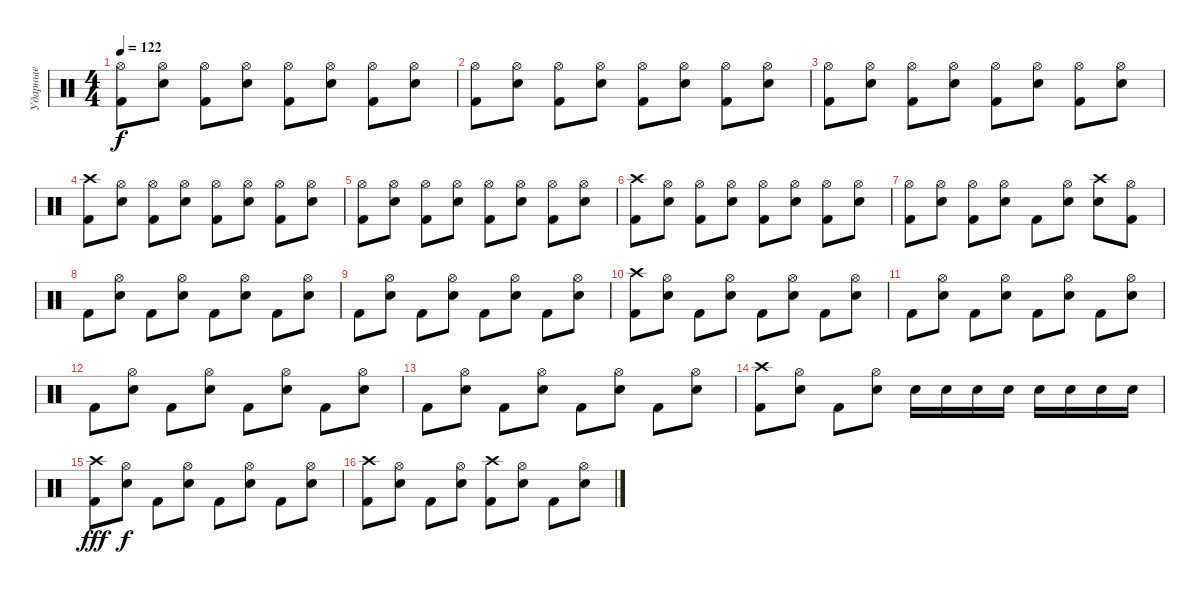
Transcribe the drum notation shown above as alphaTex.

\track ("Ударные" "Ударные") {instrument percussion}
\staff {score}
\articulation defaults
\ts (4 4)
\tempo 122
\clef neutral
\ks c
("Kick (hit) 2" "Hi-Hat (open)").8{dy f} ("Snare (hit) 2" "Hi-Hat (open)").8 ("Kick (hit) 2" "Hi-Hat (open)").8 ("Snare (hit) 2" "Hi-Hat (open)").8 ("Kick (hit) 2" "Hi-Hat (open)").8 ("Snare (hit) 2" "Hi-Hat (open)").8 ("Kick (hit) 2" "Hi-Hat (open)").8 ("Snare (hit) 2" "Hi-Hat (open)").8 |
("Kick (hit) 2" "Hi-Hat (open)").8 ("Snare (hit) 2" "Hi-Hat (open)").8 ("Kick (hit) 2" "Hi-Hat (open)").8 ("Snare (hit) 2" "Hi-Hat (open)").8 ("Kick (hit) 2" "Hi-Hat (open)").8 ("Snare (hit) 2" "Hi-Hat (open)").8 ("Kick (hit) 2" "Hi-Hat (open)").8 ("Snare (hit) 2" "Hi-Hat (open)").8 |
("Kick (hit) 2" "Hi-Hat (open)").8 ("Snare (hit) 2" "Hi-Hat (open)").8 ("Kick (hit) 2" "Hi-Hat (open)").8 ("Snare (hit) 2" "Hi-Hat (open)").8 ("Kick (hit) 2" "Hi-Hat (open)").8 ("Snare (hit) 2" "Hi-Hat (open)").8 ("Kick (hit) 2" "Hi-Hat (open)").8 ("Snare (hit) 2" "Hi-Hat (open)").8 |
("Kick (hit) 2" "Crash high (hit)").8 ("Snare (hit) 2" "Hi-Hat (open)").8 ("Kick (hit) 2" "Hi-Hat (open)").8 ("Snare (hit) 2" "Hi-Hat (open)").8 ("Kick (hit) 2" "Hi-Hat (open)").8 ("Snare (hit) 2" "Hi-Hat (open)").8 ("Kick (hit) 2" "Hi-Hat (open)").8 ("Snare (hit) 2" "Hi-Hat (open)").8 |
("Kick (hit) 2" "Hi-Hat (open)").8 ("Snare (hit) 2" "Hi-Hat (open)").8 ("Kick (hit) 2" "Hi-Hat (open)").8 ("Snare (hit) 2" "Hi-Hat (open)").8 ("Kick (hit) 2" "Hi-Hat (open)").8 ("Snare (hit) 2" "Hi-Hat (open)").8 ("Kick (hit) 2" "Hi-Hat (open)").8 ("Snare (hit) 2" "Hi-Hat (open)").8 |
("Kick (hit) 2" "Crash high (hit)").8 ("Snare (hit) 2" "Hi-Hat (open)").8 ("Kick (hit) 2" "Hi-Hat (open)").8 ("Snare (hit) 2" "Hi-Hat (open)").8 ("Kick (hit) 2" "Hi-Hat (open)").8 ("Snare (hit) 2" "Hi-Hat (open)").8 ("Kick (hit) 2" "Hi-Hat (open)").8 ("Snare (hit) 2" "Hi-Hat (open)").8 |
("Kick (hit) 2" "Hi-Hat (open)").8 ("Snare (hit) 2" "Hi-Hat (open)").8 ("Kick (hit) 2" "Hi-Hat (open)").8 ("Snare (hit) 2" "Hi-Hat (open)").8 "Kick (hit) 2".8 ("Snare (hit) 2" "Hi-Hat (open)").8 ("Snare (hit) 2" "Crash high (hit)").8 ("Kick (hit) 2" "Hi-Hat (open)").8 |
"Kick (hit) 2".8 ("Snare (hit) 2" "Hi-Hat (open)").8 "Kick (hit) 2".8 ("Snare (hit) 2" "Hi-Hat (open)").8 "Kick (hit) 2".8 ("Snare (hit) 2" "Hi-Hat (open)").8 "Kick (hit) 2".8 ("Snare (hit) 2" "Hi-Hat (open)").8 |
"Kick (hit) 2".8 ("Snare (hit) 2" "Hi-Hat (open)").8 "Kick (hit) 2".8 ("Snare (hit) 2" "Hi-Hat (open)").8 "Kick (hit) 2".8 ("Snare (hit) 2" "Hi-Hat (open)").8 "Kick (hit) 2".8 ("Snare (hit) 2" "Hi-Hat (open)").8 |
("Kick (hit) 2" "Crash high (hit)").8 ("Snare (hit) 2" "Hi-Hat (open)").8 "Kick (hit) 2".8 ("Snare (hit) 2" "Hi-Hat (open)").8 "Kick (hit) 2".8 ("Snare (hit) 2" "Hi-Hat (open)").8 "Kick (hit) 2".8 ("Snare (hit) 2" "Hi-Hat (open)").8 |
"Kick (hit) 2".8 ("Snare (hit) 2" "Hi-Hat (open)").8 "Kick (hit) 2".8 ("Snare (hit) 2" "Hi-Hat (open)").8 "Kick (hit) 2".8 ("Snare (hit) 2" "Hi-Hat (open)").8 "Kick (hit) 2".8 ("Snare (hit) 2" "Hi-Hat (open)").8 |
"Kick (hit) 2".8 ("Snare (hit) 2" "Hi-Hat (open)").8 "Kick (hit) 2".8 ("Snare (hit) 2" "Hi-Hat (open)").8 "Kick (hit) 2".8 ("Snare (hit) 2" "Hi-Hat (open)").8 "Kick (hit) 2".8 ("Snare (hit) 2" "Hi-Hat (open)").8 |
"Kick (hit) 2".8 ("Snare (hit) 2" "Hi-Hat (open)").8 "Kick (hit) 2".8 ("Snare (hit) 2" "Hi-Hat (open)").8 "Kick (hit) 2".8 ("Snare (hit) 2" "Hi-Hat (open)").8 "Kick (hit) 2".8 ("Snare (hit) 2" "Hi-Hat (open)").8 |
("Kick (hit) 2" "Crash high (hit)").8 ("Snare (hit) 2" "Hi-Hat (open)").8 "Kick (hit) 2".8 ("Snare (hit) 2" "Hi-Hat (open)").8 "Snare (hit) 2".16 "Snare (hit) 2".16 "Snare (hit) 2".16 "Snare (hit) 2".16 "Snare (hit) 2".16 "Snare (hit) 2".16 "Snare (hit) 2".16 "Snare (hit) 2".16 |
("Kick (hit) 2" "Crash high (hit)").8{dy fff} ("Snare (hit) 2" "Hi-Hat (open)").8{dy f} "Kick (hit) 2".8 ("Snare (hit) 2" "Hi-Hat (open)").8 "Kick (hit) 2".8 ("Snare (hit) 2" "Hi-Hat (open)").8 "Kick (hit) 2".8 ("Snare (hit) 2" "Hi-Hat (open)").8 |
("Kick (hit) 2" "Crash high (hit)").8 ("Snare (hit) 2" "Hi-Hat (open)").8 "Kick (hit) 2".8 ("Snare (hit) 2" "Hi-Hat (open)").8 ("Kick (hit) 2" "Crash high (hit)").8 ("Snare (hit) 2" "Hi-Hat (open)").8 "Kick (hit) 2".8 ("Snare (hit) 2" "Hi-Hat (open)").8
